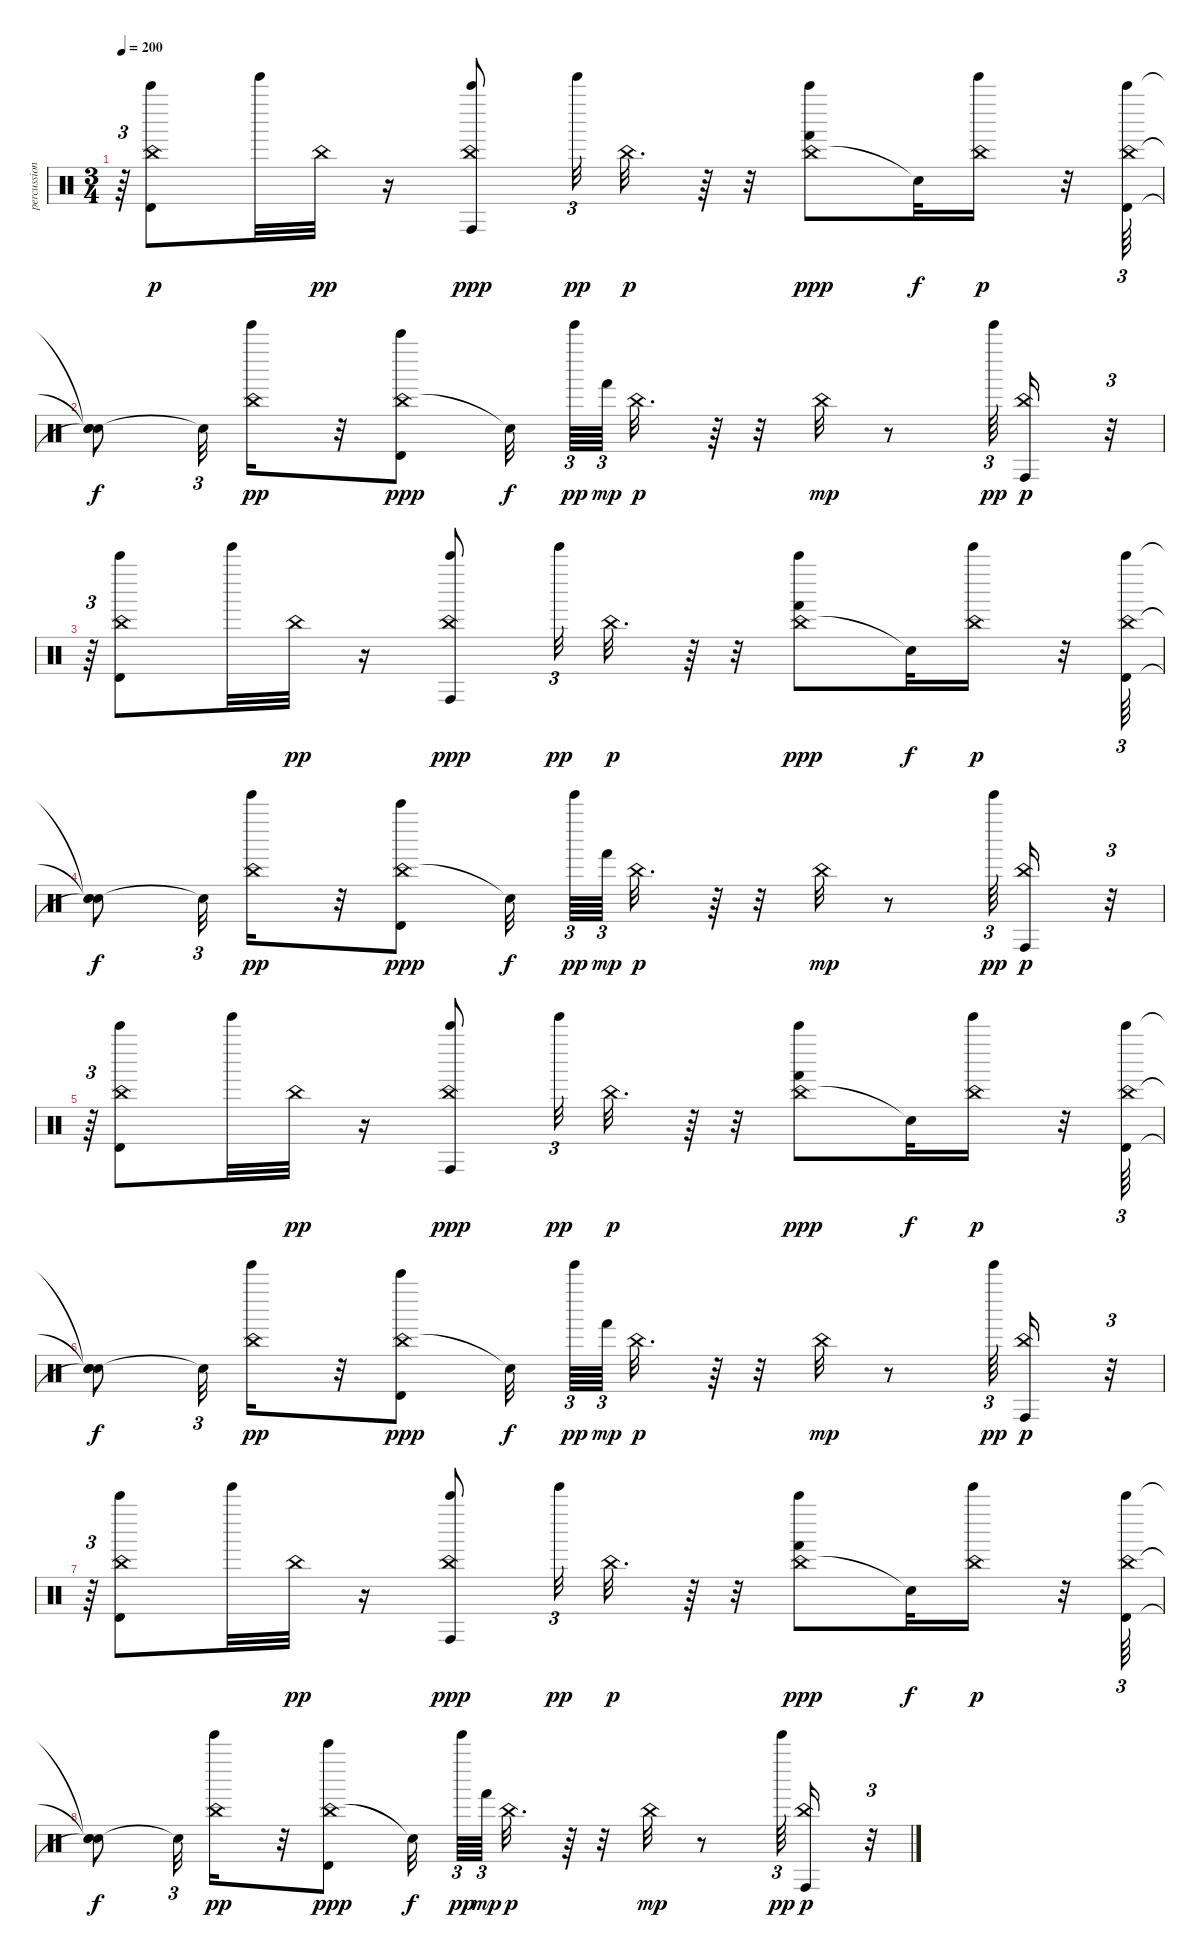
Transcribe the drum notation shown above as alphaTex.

\track ("percussion" "percussion") {instrument percussion}
\staff {score}
\articulation defaults
\ts (3 4)
\tempo 200
\clef neutral
\ks c
r.64{tu (3 2) dy p} ("China (hit)" "Timbale high (hit)" "Bell Tree (hit)").8 "Tinkle Bell (hit)".32 "China (hit)".32{dy pp} r.16 ("China (hit)" "Conga high (hit)" "Bell Tree (hit)").8{dy ppp} "Tinkle Bell (hit)".32{tu (3 2) dy pp} "China (hit)".32{d dy p} r.64 r.32 ("China (hit)" "Hand (hit)" "Bell Tree (hit)").8{dy ppp} "Snare (hit)"{t}.32{dy f} ("Tinkle Bell (hit)" "China (hit)").16{dy p} r.32 ("China (hit)" "Timbale high (hit)" "Bell Tree (hit)").64{tu (3 2)} |
("Snare (hit)"{t} "Snare (hit)"{t} "Snare (hit)"{t}).8{dy f} "Snare (hit)"{t}.32{tu (3 2)} ("Tinkle Bell (hit)" "China (hit)").16{dy pp} r.32 ("China (hit)" "Timbale high (hit)" "Bell Tree (hit)").8{dy ppp} "Snare (hit)"{t}.32{dy f} "Tinkle Bell (hit)".64{tu (3 2) dy pp} "Hand (hit)".64{tu (3 2) dy mp} "China (hit)".32{d dy p} r.64 r.32 "China (hit)".32{dy mp} r.8 "Tinkle Bell (hit)".64{tu (3 2) dy pp} ("Conga high (hit)" "China (hit)").16{dy p} r.32{tu (3 2)} |
r.64{tu (3 2)} ("China (hit)" "Timbale high (hit)" "Bell Tree (hit)").8 "Tinkle Bell (hit)".32 "China (hit)".32{dy pp} r.16 ("China (hit)" "Conga high (hit)" "Bell Tree (hit)").8{dy ppp} "Tinkle Bell (hit)".32{tu (3 2) dy pp} "China (hit)".32{d dy p} r.64 r.32 ("China (hit)" "Hand (hit)" "Bell Tree (hit)").8{dy ppp} "Snare (hit)"{t}.32{dy f} ("Tinkle Bell (hit)" "China (hit)").16{dy p} r.32 ("China (hit)" "Timbale high (hit)" "Bell Tree (hit)").64{tu (3 2)} |
("Snare (hit)"{t} "Snare (hit)"{t} "Snare (hit)"{t}).8{dy f} "Snare (hit)"{t}.32{tu (3 2)} ("Tinkle Bell (hit)" "China (hit)").16{dy pp} r.32 ("China (hit)" "Timbale high (hit)" "Bell Tree (hit)").8{dy ppp} "Snare (hit)"{t}.32{dy f} "Tinkle Bell (hit)".64{tu (3 2) dy pp} "Hand (hit)".64{tu (3 2) dy mp} "China (hit)".32{d dy p} r.64 r.32 "China (hit)".32{dy mp} r.8 "Tinkle Bell (hit)".64{tu (3 2) dy pp} ("Conga high (hit)" "China (hit)").16{dy p} r.32{tu (3 2)} |
r.64{tu (3 2)} ("China (hit)" "Timbale high (hit)" "Bell Tree (hit)").8 "Tinkle Bell (hit)".32 "China (hit)".32{dy pp} r.16 ("China (hit)" "Conga high (hit)" "Bell Tree (hit)").8{dy ppp} "Tinkle Bell (hit)".32{tu (3 2) dy pp} "China (hit)".32{d dy p} r.64 r.32 ("China (hit)" "Hand (hit)" "Bell Tree (hit)").8{dy ppp} "Snare (hit)"{t}.32{dy f} ("Tinkle Bell (hit)" "China (hit)").16{dy p} r.32 ("China (hit)" "Timbale high (hit)" "Bell Tree (hit)").64{tu (3 2)} |
("Snare (hit)"{t} "Snare (hit)"{t} "Snare (hit)"{t}).8{dy f} "Snare (hit)"{t}.32{tu (3 2)} ("Tinkle Bell (hit)" "China (hit)").16{dy pp} r.32 ("China (hit)" "Timbale high (hit)" "Bell Tree (hit)").8{dy ppp} "Snare (hit)"{t}.32{dy f} "Tinkle Bell (hit)".64{tu (3 2) dy pp} "Hand (hit)".64{tu (3 2) dy mp} "China (hit)".32{d dy p} r.64 r.32 "China (hit)".32{dy mp} r.8 "Tinkle Bell (hit)".64{tu (3 2) dy pp} ("Conga high (hit)" "China (hit)").16{dy p} r.32{tu (3 2)} |
r.64{tu (3 2)} ("China (hit)" "Timbale high (hit)" "Bell Tree (hit)").8 "Tinkle Bell (hit)".32 "China (hit)".32{dy pp} r.16 ("China (hit)" "Conga high (hit)" "Bell Tree (hit)").8{dy ppp} "Tinkle Bell (hit)".32{tu (3 2) dy pp} "China (hit)".32{d dy p} r.64 r.32 ("China (hit)" "Hand (hit)" "Bell Tree (hit)").8{dy ppp} "Snare (hit)"{t}.32{dy f} ("Tinkle Bell (hit)" "China (hit)").16{dy p} r.32 ("China (hit)" "Timbale high (hit)" "Bell Tree (hit)").64{tu (3 2)} |
("Snare (hit)"{t} "Snare (hit)"{t} "Snare (hit)"{t}).8{dy f} "Snare (hit)"{t}.32{tu (3 2)} ("Tinkle Bell (hit)" "China (hit)").16{dy pp} r.32 ("China (hit)" "Timbale high (hit)" "Bell Tree (hit)").8{dy ppp} "Snare (hit)"{t}.32{dy f} "Tinkle Bell (hit)".64{tu (3 2) dy pp} "Hand (hit)".64{tu (3 2) dy mp} "China (hit)".32{d dy p} r.64 r.32 "China (hit)".32{dy mp} r.8 "Tinkle Bell (hit)".64{tu (3 2) dy pp} ("Conga high (hit)" "China (hit)").16{dy p} r.32{tu (3 2)}
